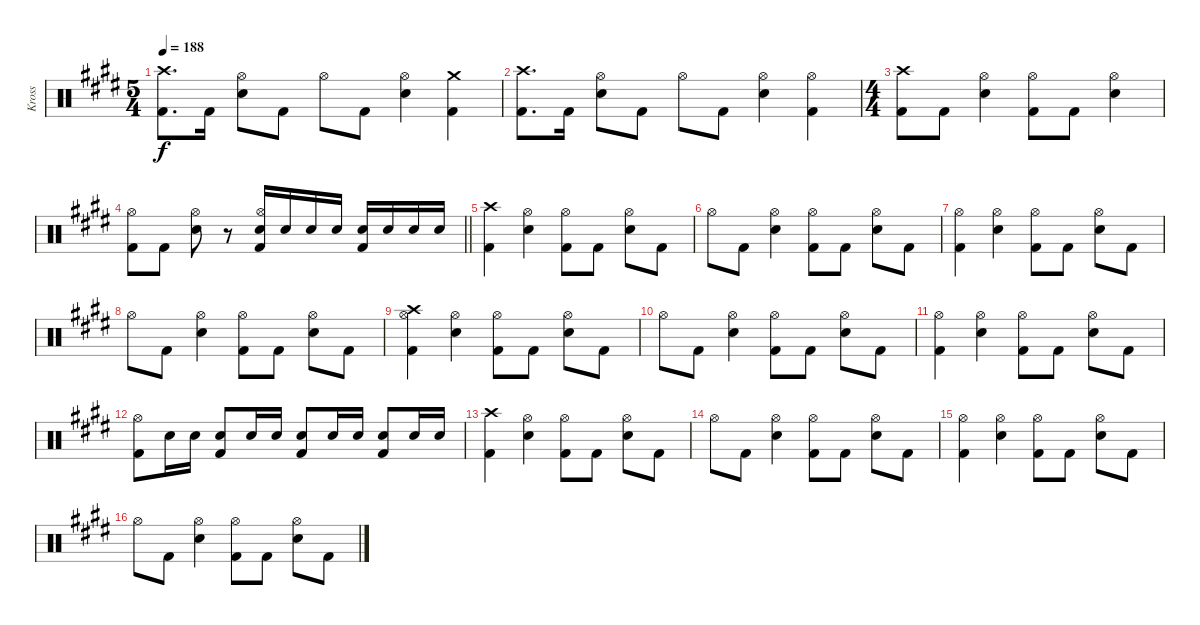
\track ("Kross" "Kross") {instrument percussion}
\staff {score}
\articulation defaults
\ts (5 4)
\tempo 188
\clef neutral
\ks e
("Crash high (hit)" "Kick (hit) 2").8{d dy f} "Kick (hit) 2".16 ("Hi-Hat (open)" "Electric Snare (hit)").8 "Kick (hit) 2".8 "Hi-Hat (open)".8 "Kick (hit) 2".8 ("Hi-Hat (open)" "Electric Snare (hit)").4 ("Crash medium (hit)" "Kick (hit) 2").4 |
("Crash high (hit)" "Kick (hit) 2").8{d} "Kick (hit) 2".16 ("Hi-Hat (open)" "Electric Snare (hit)").8 "Kick (hit) 2".8 "Hi-Hat (open)".8 "Kick (hit) 2".8 ("Hi-Hat (open)" "Electric Snare (hit)").4 ("Hi-Hat (open)" "Kick (hit) 2").4 |
\ts (4 4)
("Crash high (hit)" "Kick (hit) 2").8 "Kick (hit) 2".8 ("Hi-Hat (open)" "Electric Snare (hit)").4 ("Hi-Hat (open)" "Kick (hit) 2").8 "Kick (hit) 2".8 ("Hi-Hat (open)" "Electric Snare (hit)").4 |
\barLineRight lightlight
("Hi-Hat (open)" "Kick (hit) 2").8 "Kick (hit) 2".8 ("Hi-Hat (open)" "Electric Snare (hit)").8 r.8 ("Hi-Hat (open)" "Electric Snare (hit)" "Kick (hit) 2").16 "Electric Snare (hit)".16 "Electric Snare (hit)".16 "Electric Snare (hit)".16 ("Electric Snare (hit)" "Kick (hit) 2").16 "Electric Snare (hit)".16 "Electric Snare (hit)".16 "Electric Snare (hit)".16 |
("Crash high (hit)" "Kick (hit) 2").4 ("Hi-Hat (open)" "Electric Snare (hit)").4 ("Hi-Hat (open)" "Kick (hit) 2").8 "Kick (hit) 2".8 ("Hi-Hat (open)" "Electric Snare (hit)").8 "Kick (hit) 2".8 |
"Hi-Hat (open)".8 "Kick (hit) 2".8 ("Hi-Hat (open)" "Electric Snare (hit)").4 ("Hi-Hat (open)" "Kick (hit) 2").8 "Kick (hit) 2".8 ("Hi-Hat (open)" "Electric Snare (hit)").8 "Kick (hit) 2".8 |
("Hi-Hat (open)" "Kick (hit) 2").4 ("Hi-Hat (open)" "Electric Snare (hit)").4 ("Hi-Hat (open)" "Kick (hit) 2").8 "Kick (hit) 2".8 ("Hi-Hat (open)" "Electric Snare (hit)").8 "Kick (hit) 2".8 |
"Hi-Hat (open)".8 "Kick (hit) 2".8 ("Hi-Hat (open)" "Electric Snare (hit)").4 ("Hi-Hat (open)" "Kick (hit) 2").8 "Kick (hit) 2".8 ("Hi-Hat (open)" "Electric Snare (hit)").8 "Kick (hit) 2".8 |
("Crash high (hit)" "Hi-Hat (open)" "Kick (hit) 2").4 ("Hi-Hat (open)" "Electric Snare (hit)").4 ("Hi-Hat (open)" "Kick (hit) 2").8 "Kick (hit) 2".8 ("Hi-Hat (open)" "Electric Snare (hit)").8 "Kick (hit) 2".8 |
"Hi-Hat (open)".8 "Kick (hit) 2".8 ("Hi-Hat (open)" "Electric Snare (hit)").4 ("Hi-Hat (open)" "Kick (hit) 2").8 "Kick (hit) 2".8 ("Hi-Hat (open)" "Electric Snare (hit)").8 "Kick (hit) 2".8 |
("Hi-Hat (open)" "Kick (hit) 2").4 ("Hi-Hat (open)" "Electric Snare (hit)").4 ("Hi-Hat (open)" "Kick (hit) 2").8 "Kick (hit) 2".8 ("Hi-Hat (open)" "Electric Snare (hit)").8 "Kick (hit) 2".8 |
("Hi-Hat (open)" "Kick (hit) 2").8 "Electric Snare (hit)".16 "Electric Snare (hit)".16 ("Electric Snare (hit)" "Kick (hit) 2").8 "Electric Snare (hit)".16 "Electric Snare (hit)".16 ("Electric Snare (hit)" "Kick (hit) 2").8 "Electric Snare (hit)".16 "Electric Snare (hit)".16 ("Electric Snare (hit)" "Kick (hit) 2").8 "Electric Snare (hit)".16 "Electric Snare (hit)".16 |
("Crash high (hit)" "Kick (hit) 2").4 ("Hi-Hat (open)" "Electric Snare (hit)").4 ("Hi-Hat (open)" "Kick (hit) 2").8 "Kick (hit) 2".8 ("Hi-Hat (open)" "Electric Snare (hit)").8 "Kick (hit) 2".8 |
"Hi-Hat (open)".8 "Kick (hit) 2".8 ("Hi-Hat (open)" "Electric Snare (hit)").4 ("Hi-Hat (open)" "Kick (hit) 2").8 "Kick (hit) 2".8 ("Hi-Hat (open)" "Electric Snare (hit)").8 "Kick (hit) 2".8 |
("Hi-Hat (open)" "Kick (hit) 2").4 ("Hi-Hat (open)" "Electric Snare (hit)").4 ("Hi-Hat (open)" "Kick (hit) 2").8 "Kick (hit) 2".8 ("Hi-Hat (open)" "Electric Snare (hit)").8 "Kick (hit) 2".8 |
"Hi-Hat (open)".8 "Kick (hit) 2".8 ("Hi-Hat (open)" "Electric Snare (hit)").4 ("Hi-Hat (open)" "Kick (hit) 2").8 "Kick (hit) 2".8 ("Hi-Hat (open)" "Electric Snare (hit)").8 "Kick (hit) 2".8
